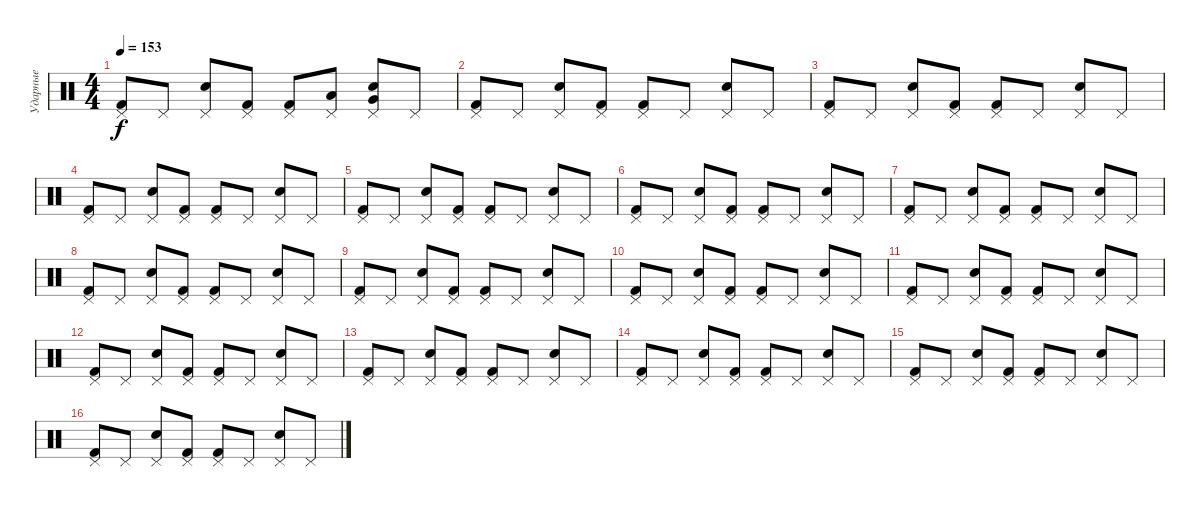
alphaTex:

\track ("Ударные" "Ударные") {instrument percussion}
\staff {score}
\articulation defaults
\ts (4 4)
\tempo 153
\clef neutral
\ks c
("Pedal Hi-Hat (hit)" "Kick (hit) 2").8{dy f} "Pedal Hi-Hat (hit)".8 ("Electric Snare (hit)" "Pedal Hi-Hat (hit)").8 ("Pedal Hi-Hat (hit)" "Kick (hit) 2").8 ("Pedal Hi-Hat (hit)" "Kick (hit) 2").8 ("Low Tom (hit)" "Pedal Hi-Hat (hit)").8 ("Very Low Tom (hit)" "Electric Snare (hit)" "Pedal Hi-Hat (hit)").8 "Pedal Hi-Hat (hit)".8 |
("Pedal Hi-Hat (hit)" "Kick (hit) 2").8 "Pedal Hi-Hat (hit)".8 ("Electric Snare (hit)" "Pedal Hi-Hat (hit)").8 ("Pedal Hi-Hat (hit)" "Kick (hit) 2").8 ("Pedal Hi-Hat (hit)" "Kick (hit) 2").8 "Pedal Hi-Hat (hit)".8 ("Electric Snare (hit)" "Pedal Hi-Hat (hit)").8 "Pedal Hi-Hat (hit)".8 |
("Pedal Hi-Hat (hit)" "Kick (hit) 2").8 "Pedal Hi-Hat (hit)".8 ("Electric Snare (hit)" "Pedal Hi-Hat (hit)").8 ("Pedal Hi-Hat (hit)" "Kick (hit) 2").8 ("Pedal Hi-Hat (hit)" "Kick (hit) 2").8 "Pedal Hi-Hat (hit)".8 ("Electric Snare (hit)" "Pedal Hi-Hat (hit)").8 "Pedal Hi-Hat (hit)".8 |
("Pedal Hi-Hat (hit)" "Kick (hit) 2").8 "Pedal Hi-Hat (hit)".8 ("Electric Snare (hit)" "Pedal Hi-Hat (hit)").8 ("Pedal Hi-Hat (hit)" "Kick (hit) 2").8 ("Pedal Hi-Hat (hit)" "Kick (hit) 2").8 "Pedal Hi-Hat (hit)".8 ("Electric Snare (hit)" "Pedal Hi-Hat (hit)").8 "Pedal Hi-Hat (hit)".8 |
("Pedal Hi-Hat (hit)" "Kick (hit) 2").8 "Pedal Hi-Hat (hit)".8 ("Electric Snare (hit)" "Pedal Hi-Hat (hit)").8 ("Pedal Hi-Hat (hit)" "Kick (hit) 2").8 ("Pedal Hi-Hat (hit)" "Kick (hit) 2").8 "Pedal Hi-Hat (hit)".8 ("Electric Snare (hit)" "Pedal Hi-Hat (hit)").8 "Pedal Hi-Hat (hit)".8 |
("Pedal Hi-Hat (hit)" "Kick (hit) 2").8 "Pedal Hi-Hat (hit)".8 ("Electric Snare (hit)" "Pedal Hi-Hat (hit)").8 ("Pedal Hi-Hat (hit)" "Kick (hit) 2").8 ("Pedal Hi-Hat (hit)" "Kick (hit) 2").8 "Pedal Hi-Hat (hit)".8 ("Electric Snare (hit)" "Pedal Hi-Hat (hit)").8 "Pedal Hi-Hat (hit)".8 |
("Pedal Hi-Hat (hit)" "Kick (hit) 2").8 "Pedal Hi-Hat (hit)".8 ("Electric Snare (hit)" "Pedal Hi-Hat (hit)").8 ("Pedal Hi-Hat (hit)" "Kick (hit) 2").8 ("Pedal Hi-Hat (hit)" "Kick (hit) 2").8 "Pedal Hi-Hat (hit)".8 ("Electric Snare (hit)" "Pedal Hi-Hat (hit)").8 "Pedal Hi-Hat (hit)".8 |
("Pedal Hi-Hat (hit)" "Kick (hit) 2").8 "Pedal Hi-Hat (hit)".8 ("Electric Snare (hit)" "Pedal Hi-Hat (hit)").8 ("Pedal Hi-Hat (hit)" "Kick (hit) 2").8 ("Pedal Hi-Hat (hit)" "Kick (hit) 2").8 "Pedal Hi-Hat (hit)".8 ("Electric Snare (hit)" "Pedal Hi-Hat (hit)").8 "Pedal Hi-Hat (hit)".8 |
("Pedal Hi-Hat (hit)" "Kick (hit) 2").8 "Pedal Hi-Hat (hit)".8 ("Electric Snare (hit)" "Pedal Hi-Hat (hit)").8 ("Pedal Hi-Hat (hit)" "Kick (hit) 2").8 ("Pedal Hi-Hat (hit)" "Kick (hit) 2").8 "Pedal Hi-Hat (hit)".8 ("Electric Snare (hit)" "Pedal Hi-Hat (hit)").8 "Pedal Hi-Hat (hit)".8 |
("Pedal Hi-Hat (hit)" "Kick (hit) 2").8 "Pedal Hi-Hat (hit)".8 ("Electric Snare (hit)" "Pedal Hi-Hat (hit)").8 ("Pedal Hi-Hat (hit)" "Kick (hit) 2").8 ("Pedal Hi-Hat (hit)" "Kick (hit) 2").8 "Pedal Hi-Hat (hit)".8 ("Electric Snare (hit)" "Pedal Hi-Hat (hit)").8 "Pedal Hi-Hat (hit)".8 |
("Pedal Hi-Hat (hit)" "Kick (hit) 2").8 "Pedal Hi-Hat (hit)".8 ("Electric Snare (hit)" "Pedal Hi-Hat (hit)").8 ("Pedal Hi-Hat (hit)" "Kick (hit) 2").8 ("Pedal Hi-Hat (hit)" "Kick (hit) 2").8 "Pedal Hi-Hat (hit)".8 ("Electric Snare (hit)" "Pedal Hi-Hat (hit)").8 "Pedal Hi-Hat (hit)".8 |
("Pedal Hi-Hat (hit)" "Kick (hit) 2").8 "Pedal Hi-Hat (hit)".8 ("Electric Snare (hit)" "Pedal Hi-Hat (hit)").8 ("Pedal Hi-Hat (hit)" "Kick (hit) 2").8 ("Pedal Hi-Hat (hit)" "Kick (hit) 2").8 "Pedal Hi-Hat (hit)".8 ("Electric Snare (hit)" "Pedal Hi-Hat (hit)").8 "Pedal Hi-Hat (hit)".8 |
("Pedal Hi-Hat (hit)" "Kick (hit) 2").8 "Pedal Hi-Hat (hit)".8 ("Electric Snare (hit)" "Pedal Hi-Hat (hit)").8 ("Pedal Hi-Hat (hit)" "Kick (hit) 2").8 ("Pedal Hi-Hat (hit)" "Kick (hit) 2").8 "Pedal Hi-Hat (hit)".8 ("Electric Snare (hit)" "Pedal Hi-Hat (hit)").8 "Pedal Hi-Hat (hit)".8 |
("Pedal Hi-Hat (hit)" "Kick (hit) 2").8 "Pedal Hi-Hat (hit)".8 ("Electric Snare (hit)" "Pedal Hi-Hat (hit)").8 ("Pedal Hi-Hat (hit)" "Kick (hit) 2").8 ("Pedal Hi-Hat (hit)" "Kick (hit) 2").8 "Pedal Hi-Hat (hit)".8 ("Electric Snare (hit)" "Pedal Hi-Hat (hit)").8 "Pedal Hi-Hat (hit)".8 |
("Pedal Hi-Hat (hit)" "Kick (hit) 2").8 "Pedal Hi-Hat (hit)".8 ("Electric Snare (hit)" "Pedal Hi-Hat (hit)").8 ("Pedal Hi-Hat (hit)" "Kick (hit) 2").8 ("Pedal Hi-Hat (hit)" "Kick (hit) 2").8 "Pedal Hi-Hat (hit)".8 ("Electric Snare (hit)" "Pedal Hi-Hat (hit)").8 "Pedal Hi-Hat (hit)".8 |
("Pedal Hi-Hat (hit)" "Kick (hit) 2").8 "Pedal Hi-Hat (hit)".8 ("Electric Snare (hit)" "Pedal Hi-Hat (hit)").8 ("Pedal Hi-Hat (hit)" "Kick (hit) 2").8 ("Pedal Hi-Hat (hit)" "Kick (hit) 2").8 "Pedal Hi-Hat (hit)".8 ("Electric Snare (hit)" "Pedal Hi-Hat (hit)").8 "Pedal Hi-Hat (hit)".8
